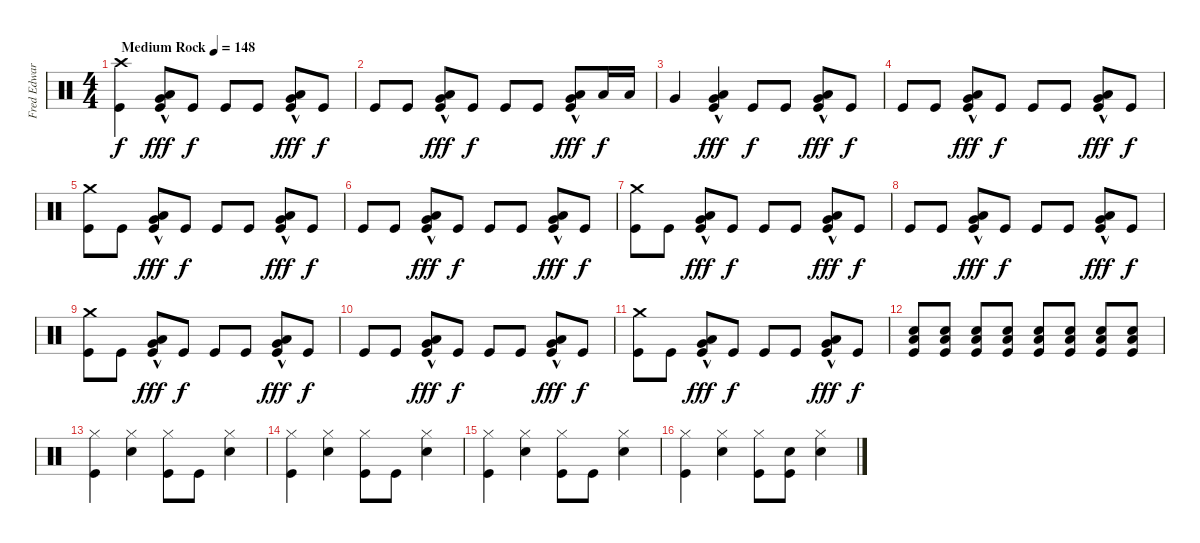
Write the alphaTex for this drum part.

\track ("Fred Edwards Drums" "Fred Edwar") {instrument percussion}
\staff {score}
\articulation defaults
\ts (4 4)
\tempo (148 "Medium Rock")
\clef neutral
\ks c
("Crash high (hit)" "Kick (hit)").4{dy f} ("Low Tom (hit)"{hac} "Very Low Tom (hit)" "Kick (hit)").8{dy fff} "Kick (hit)".8{dy f} "Kick (hit)".8 "Kick (hit)".8 ("Low Tom (hit)"{hac} "Very Low Tom (hit)" "Kick (hit)").8{dy fff} "Kick (hit)".8{dy f} |
"Kick (hit)".8 "Kick (hit)".8 ("Low Tom (hit)"{hac} "Very Low Tom (hit)" "Kick (hit)").8{dy fff} "Kick (hit)".8{dy f} "Kick (hit)".8 "Kick (hit)".8 ("Low Tom (hit)"{hac} "Very Low Tom (hit)" "Kick (hit)").8{dy fff} "Low Tom (hit)".16{dy f} "Low Tom (hit)".16 |
"Very Low Tom (hit)".4 ("Low Tom (hit)"{hac} "Very Low Tom (hit)" "Kick (hit)").4{dy fff} "Kick (hit)".8{dy f} "Kick (hit)".8 ("Low Tom (hit)"{hac} "Very Low Tom (hit)" "Kick (hit)").8{dy fff} "Kick (hit)".8{dy f} |
"Kick (hit)".8 "Kick (hit)".8 ("Low Tom (hit)"{hac} "Very Low Tom (hit)" "Kick (hit)").8{dy fff} "Kick (hit)".8{dy f} "Kick (hit)".8 "Kick (hit)".8 ("Low Tom (hit)"{hac} "Very Low Tom (hit)" "Kick (hit)").8{dy fff} "Kick (hit)".8{dy f} |
("Crash medium (hit)" "Kick (hit)").8 "Kick (hit)".8 ("Low Tom (hit)"{hac} "Very Low Tom (hit)" "Kick (hit)").8{dy fff} "Kick (hit)".8{dy f} "Kick (hit)".8 "Kick (hit)".8 ("Low Tom (hit)"{hac} "Very Low Tom (hit)" "Kick (hit)").8{dy fff} "Kick (hit)".8{dy f} |
"Kick (hit)".8 "Kick (hit)".8 ("Low Tom (hit)"{hac} "Very Low Tom (hit)" "Kick (hit)").8{dy fff} "Kick (hit)".8{dy f} "Kick (hit)".8 "Kick (hit)".8 ("Low Tom (hit)"{hac} "Very Low Tom (hit)" "Kick (hit)").8{dy fff} "Kick (hit)".8{dy f} |
("Crash medium (hit)" "Kick (hit)").8 "Kick (hit)".8 ("Low Tom (hit)"{hac} "Very Low Tom (hit)" "Kick (hit)").8{dy fff} "Kick (hit)".8{dy f} "Kick (hit)".8 "Kick (hit)".8 ("Low Tom (hit)"{hac} "Very Low Tom (hit)" "Kick (hit)").8{dy fff} "Kick (hit)".8{dy f} |
"Kick (hit)".8 "Kick (hit)".8 ("Low Tom (hit)"{hac} "Very Low Tom (hit)" "Kick (hit)").8{dy fff} "Kick (hit)".8{dy f} "Kick (hit)".8 "Kick (hit)".8 ("Low Tom (hit)"{hac} "Very Low Tom (hit)" "Kick (hit)").8{dy fff} "Kick (hit)".8{dy f} |
("Crash medium (hit)" "Kick (hit)").8 "Kick (hit)".8 ("Low Tom (hit)"{hac} "Very Low Tom (hit)" "Kick (hit)").8{dy fff} "Kick (hit)".8{dy f} "Kick (hit)".8 "Kick (hit)".8 ("Low Tom (hit)"{hac} "Very Low Tom (hit)" "Kick (hit)").8{dy fff} "Kick (hit)".8{dy f} |
"Kick (hit)".8 "Kick (hit)".8 ("Low Tom (hit)"{hac} "Very Low Tom (hit)" "Kick (hit)").8{dy fff} "Kick (hit)".8{dy f} "Kick (hit)".8 "Kick (hit)".8 ("Low Tom (hit)"{hac} "Very Low Tom (hit)" "Kick (hit)").8{dy fff} "Kick (hit)".8{dy f} |
("Crash medium (hit)" "Kick (hit)").8 "Kick (hit)".8 ("Low Tom (hit)"{hac} "Very Low Tom (hit)" "Kick (hit)").8{dy fff} "Kick (hit)".8{dy f} "Kick (hit)".8 "Kick (hit)".8 ("Low Tom (hit)"{hac} "Very Low Tom (hit)" "Kick (hit)").8{dy fff} "Kick (hit)".8{dy f} |
("Snare (hit) 2" "Low Tom (hit)" "Kick (hit)").8 ("Snare (hit) 2" "Low Tom (hit)" "Kick (hit)").8 ("Snare (hit) 2" "Low Tom (hit)" "Kick (hit)").8 ("Snare (hit) 2" "Low Tom (hit)" "Kick (hit)").8 ("Snare (hit) 2" "Low Tom (hit)" "Kick (hit)").8 ("Snare (hit) 2" "Low Tom (hit)" "Kick (hit)").8 ("Snare (hit) 2" "Low Tom (hit)" "Kick (hit)").8 ("Snare (hit) 2" "Low Tom (hit)" "Kick (hit)").8 |
("Hi-Hat (closed)" "Kick (hit)").4 ("Hi-Hat (closed)" "Snare (hit) 2").4 ("Hi-Hat (closed)" "Kick (hit)").8 "Kick (hit)".8 ("Hi-Hat (closed)" "Snare (hit) 2").4 |
("Hi-Hat (closed)" "Kick (hit)").4 ("Hi-Hat (closed)" "Snare (hit) 2").4 ("Hi-Hat (closed)" "Kick (hit)").8 "Kick (hit)".8 ("Hi-Hat (closed)" "Snare (hit) 2").4 |
("Hi-Hat (closed)" "Kick (hit)").4 ("Hi-Hat (closed)" "Snare (hit) 2").4 ("Hi-Hat (closed)" "Kick (hit)").8 "Kick (hit)".8 ("Hi-Hat (closed)" "Snare (hit) 2").4 |
("Hi-Hat (closed)" "Kick (hit)").4 ("Hi-Hat (closed)" "Snare (hit) 2").4 ("Hi-Hat (closed)" "Kick (hit)").8 ("Snare (hit) 2" "Kick (hit)").8 ("Hi-Hat (closed)" "Snare (hit) 2").4
